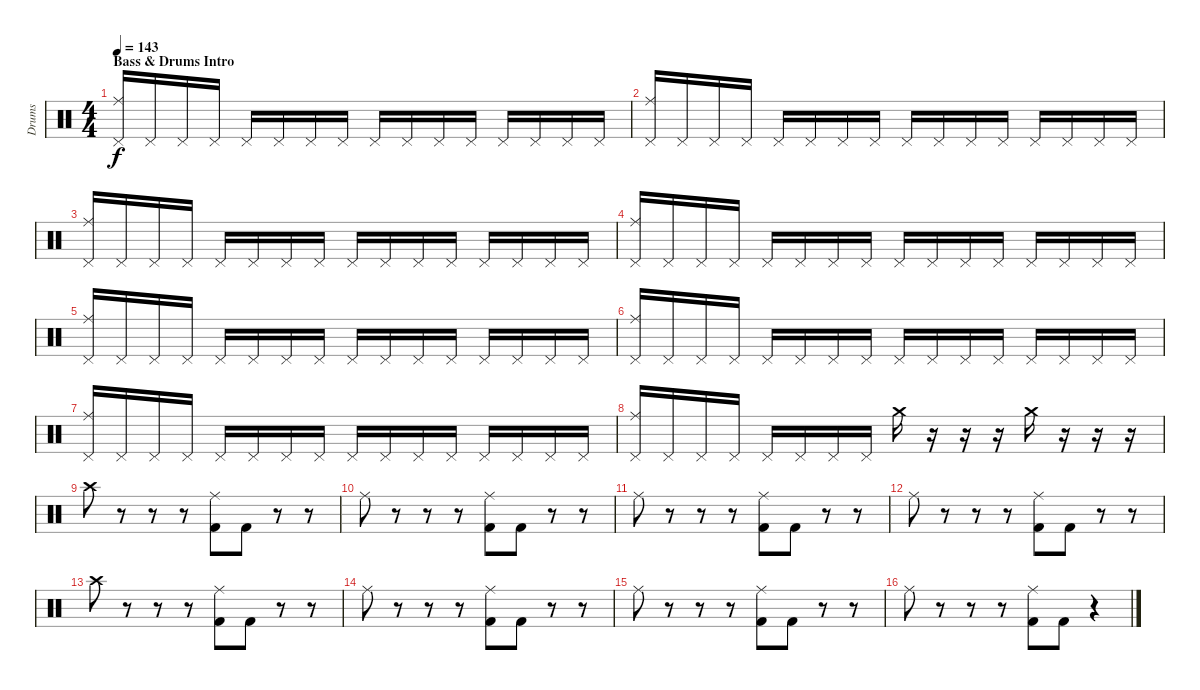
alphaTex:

\track ("Drums" "Drums") {instrument percussion}
\staff {score}
\articulation defaults
\ts (4 4)
\section ("" "Bass & Drums Intro")
\tempo 143
\clef neutral
\ks c
("Ride (middle)" "Pedal Hi-Hat (hit)").16{dy f volume 10} "Pedal Hi-Hat (hit)".16 "Pedal Hi-Hat (hit)".16 "Pedal Hi-Hat (hit)".16 "Pedal Hi-Hat (hit)".16 "Pedal Hi-Hat (hit)".16 "Pedal Hi-Hat (hit)".16 "Pedal Hi-Hat (hit)".16 "Pedal Hi-Hat (hit)".16 "Pedal Hi-Hat (hit)".16 "Pedal Hi-Hat (hit)".16 "Pedal Hi-Hat (hit)".16 "Pedal Hi-Hat (hit)".16 "Pedal Hi-Hat (hit)".16 "Pedal Hi-Hat (hit)".16 "Pedal Hi-Hat (hit)".16 |
("Ride (middle)" "Pedal Hi-Hat (hit)").16{volume 11} "Pedal Hi-Hat (hit)".16 "Pedal Hi-Hat (hit)".16 "Pedal Hi-Hat (hit)".16 "Pedal Hi-Hat (hit)".16 "Pedal Hi-Hat (hit)".16 "Pedal Hi-Hat (hit)".16 "Pedal Hi-Hat (hit)".16 "Pedal Hi-Hat (hit)".16 "Pedal Hi-Hat (hit)".16 "Pedal Hi-Hat (hit)".16 "Pedal Hi-Hat (hit)".16 "Pedal Hi-Hat (hit)".16 "Pedal Hi-Hat (hit)".16 "Pedal Hi-Hat (hit)".16 "Pedal Hi-Hat (hit)".16 |
("Ride (middle)" "Pedal Hi-Hat (hit)").16{volume 12} "Pedal Hi-Hat (hit)".16 "Pedal Hi-Hat (hit)".16 "Pedal Hi-Hat (hit)".16 "Pedal Hi-Hat (hit)".16 "Pedal Hi-Hat (hit)".16 "Pedal Hi-Hat (hit)".16 "Pedal Hi-Hat (hit)".16 "Pedal Hi-Hat (hit)".16 "Pedal Hi-Hat (hit)".16 "Pedal Hi-Hat (hit)".16 "Pedal Hi-Hat (hit)".16 "Pedal Hi-Hat (hit)".16 "Pedal Hi-Hat (hit)".16 "Pedal Hi-Hat (hit)".16 "Pedal Hi-Hat (hit)".16 |
("Ride (middle)" "Pedal Hi-Hat (hit)").16{volume 13} "Pedal Hi-Hat (hit)".16 "Pedal Hi-Hat (hit)".16 "Pedal Hi-Hat (hit)".16 "Pedal Hi-Hat (hit)".16 "Pedal Hi-Hat (hit)".16 "Pedal Hi-Hat (hit)".16 "Pedal Hi-Hat (hit)".16 "Pedal Hi-Hat (hit)".16 "Pedal Hi-Hat (hit)".16 "Pedal Hi-Hat (hit)".16 "Pedal Hi-Hat (hit)".16 "Pedal Hi-Hat (hit)".16 "Pedal Hi-Hat (hit)".16 "Pedal Hi-Hat (hit)".16 "Pedal Hi-Hat (hit)".16 |
("Ride (middle)" "Pedal Hi-Hat (hit)").16{volume 14} "Pedal Hi-Hat (hit)".16 "Pedal Hi-Hat (hit)".16 "Pedal Hi-Hat (hit)".16 "Pedal Hi-Hat (hit)".16 "Pedal Hi-Hat (hit)".16 "Pedal Hi-Hat (hit)".16 "Pedal Hi-Hat (hit)".16 "Pedal Hi-Hat (hit)".16 "Pedal Hi-Hat (hit)".16 "Pedal Hi-Hat (hit)".16 "Pedal Hi-Hat (hit)".16 "Pedal Hi-Hat (hit)".16 "Pedal Hi-Hat (hit)".16 "Pedal Hi-Hat (hit)".16 "Pedal Hi-Hat (hit)".16 |
("Ride (middle)" "Pedal Hi-Hat (hit)").16{volume 15} "Pedal Hi-Hat (hit)".16 "Pedal Hi-Hat (hit)".16 "Pedal Hi-Hat (hit)".16 "Pedal Hi-Hat (hit)".16 "Pedal Hi-Hat (hit)".16 "Pedal Hi-Hat (hit)".16 "Pedal Hi-Hat (hit)".16 "Pedal Hi-Hat (hit)".16 "Pedal Hi-Hat (hit)".16 "Pedal Hi-Hat (hit)".16 "Pedal Hi-Hat (hit)".16 "Pedal Hi-Hat (hit)".16 "Pedal Hi-Hat (hit)".16 "Pedal Hi-Hat (hit)".16 "Pedal Hi-Hat (hit)".16 |
("Ride (middle)" "Pedal Hi-Hat (hit)").16 "Pedal Hi-Hat (hit)".16{volume 16} "Pedal Hi-Hat (hit)".16 "Pedal Hi-Hat (hit)".16 "Pedal Hi-Hat (hit)".16 "Pedal Hi-Hat (hit)".16 "Pedal Hi-Hat (hit)".16 "Pedal Hi-Hat (hit)".16 "Pedal Hi-Hat (hit)".16 "Pedal Hi-Hat (hit)".16 "Pedal Hi-Hat (hit)".16 "Pedal Hi-Hat (hit)".16 "Pedal Hi-Hat (hit)".16 "Pedal Hi-Hat (hit)".16 "Pedal Hi-Hat (hit)".16 "Pedal Hi-Hat (hit)".16 |
("Ride (middle)" "Pedal Hi-Hat (hit)").16 "Pedal Hi-Hat (hit)".16 "Pedal Hi-Hat (hit)".16 "Pedal Hi-Hat (hit)".16 "Pedal Hi-Hat (hit)".16 "Pedal Hi-Hat (hit)".16 "Pedal Hi-Hat (hit)".16 "Pedal Hi-Hat (hit)".16 "Crash medium (hit)".16 r.16 r.16 r.16 "Crash medium (hit)".16 r.16 r.16 r.16 |
"Crash high (hit)".8 r.8 r.8 r.8 ("Ride (middle)" "Kick (hit) 2").8 "Kick (hit) 2".8 r.8 r.8 |
"Ride (middle)".8 r.8 r.8 r.8 ("Ride (middle)" "Kick (hit) 2").8 "Kick (hit) 2".8 r.8 r.8 |
"Ride (middle)".8 r.8 r.8 r.8 ("Ride (middle)" "Kick (hit) 2").8 "Kick (hit) 2".8 r.8 r.8 |
"Ride (middle)".8 r.8 r.8 r.8 ("Ride (middle)" "Kick (hit) 2").8 "Kick (hit) 2".8 r.8 r.8 |
"Crash high (hit)".8 r.8 r.8 r.8 ("Ride (middle)" "Kick (hit) 2").8 "Kick (hit) 2".8 r.8 r.8 |
"Ride (middle)".8 r.8 r.8 r.8 ("Ride (middle)" "Kick (hit) 2").8 "Kick (hit) 2".8 r.8 r.8 |
"Ride (middle)".8 r.8 r.8 r.8 ("Ride (middle)" "Kick (hit) 2").8 "Kick (hit) 2".8 r.8 r.8 |
"Ride (middle)".8 r.8 r.8 r.8 ("Ride (middle)" "Kick (hit) 2").8 "Kick (hit) 2".8 r.4
